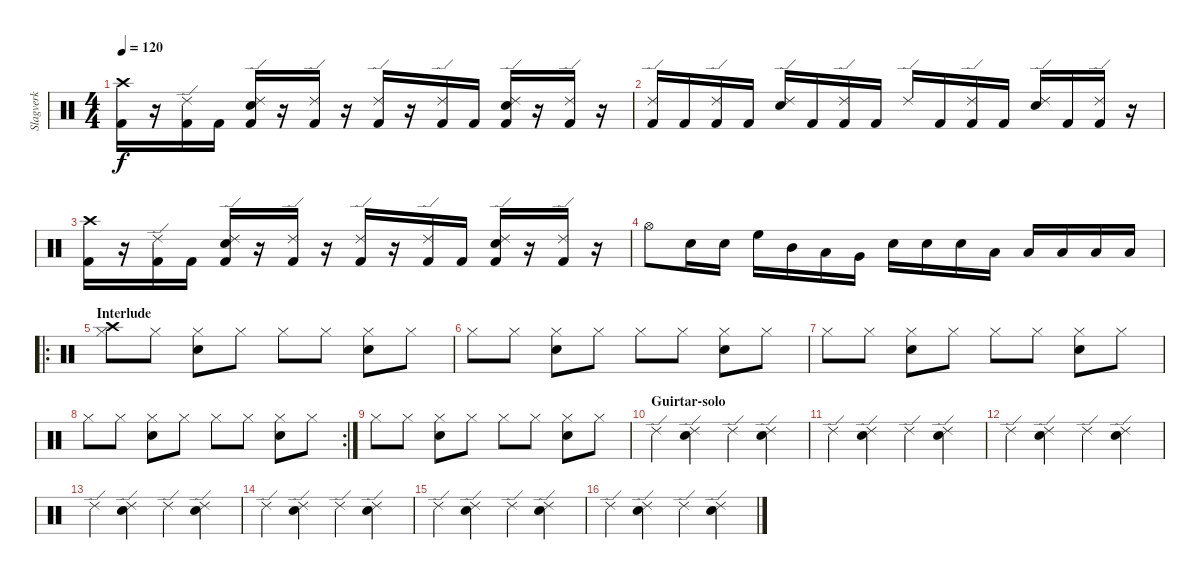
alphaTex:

\track ("Slagverk" "Slagverk") {instrument percussion}
\staff {score}
\articulation defaults
\ts (4 4)
\tempo 120
\clef neutral
\ks c
("Kick (hit) 2" "Crash high (hit)").16{dy f} r.16 ("Kick (hit) 2" "Ride (edge) 2").16 "Kick (hit) 2".16 ("Kick (hit) 2" "Electric Snare (hit)" "Ride (edge) 2").16 r.16 ("Kick (hit) 2" "Ride (edge) 2").16 r.16 ("Kick (hit) 2" "Ride (edge) 2").16 r.16 ("Kick (hit) 2" "Ride (edge) 2").16 "Kick (hit) 2".16 ("Kick (hit) 2" "Electric Snare (hit)" "Ride (edge) 2").16 r.16 ("Kick (hit) 2" "Ride (edge) 2").16 r.16 |
("Kick (hit) 2" "Ride (edge) 2").16 "Kick (hit) 2".16 ("Kick (hit) 2" "Ride (edge) 2").16 "Kick (hit) 2".16 ("Electric Snare (hit)" "Ride (edge) 2").16 "Kick (hit) 2".16 ("Kick (hit) 2" "Ride (edge) 2").16 "Kick (hit) 2".16 "Ride (edge) 2".16 "Kick (hit) 2".16 ("Kick (hit) 2" "Ride (edge) 2").16 "Kick (hit) 2".16 ("Electric Snare (hit)" "Ride (edge) 2").16 "Kick (hit) 2".16 ("Kick (hit) 2" "Ride (edge) 2").16 r.16 |
("Kick (hit) 2" "Crash high (hit)").16 r.16 ("Kick (hit) 2" "Ride (edge) 2").16 "Kick (hit) 2".16 ("Kick (hit) 2" "Electric Snare (hit)" "Ride (edge) 2").16 r.16 ("Kick (hit) 2" "Ride (edge) 2").16 r.16 ("Kick (hit) 2" "Ride (edge) 2").16 r.16 ("Kick (hit) 2" "Ride (edge) 2").16 "Kick (hit) 2".16 ("Kick (hit) 2" "Electric Snare (hit)" "Ride (edge) 2").16 r.16 ("Kick (hit) 2" "Ride (edge) 2").16 r.16 |
"Hi-Hat (open)".8 "Electric Snare (hit)".16 "Electric Snare (hit)".16 "High Floor Tom (hit)".16 "Mid Tom (hit)".16 "Low Tom (hit)".16 "Very Low Tom (hit)".16 "Electric Snare (hit)".16 "Electric Snare (hit)".16 "Electric Snare (hit)".16 "Low Tom (hit)".16 "Low Floor Tom (hit)".16 "Low Floor Tom (hit)".16 "Low Floor Tom (hit)".16 "Low Floor Tom (hit)".16 |
\ro
\section ("" "Interlude")
("Hi-Hat (closed)" "Crash high (hit)").8 "Hi-Hat (closed)".8 ("Hi-Hat (closed)" "Electric Snare (hit)").8 "Hi-Hat (closed)".8 "Hi-Hat (closed)".8 "Hi-Hat (closed)".8 ("Hi-Hat (closed)" "Electric Snare (hit)").8 "Hi-Hat (closed)".8 |
"Hi-Hat (closed)".8 "Hi-Hat (closed)".8 ("Hi-Hat (closed)" "Electric Snare (hit)").8 "Hi-Hat (closed)".8 "Hi-Hat (closed)".8 "Hi-Hat (closed)".8 ("Hi-Hat (closed)" "Electric Snare (hit)").8 "Hi-Hat (closed)".8 |
"Hi-Hat (closed)".8 "Hi-Hat (closed)".8 ("Hi-Hat (closed)" "Electric Snare (hit)").8 "Hi-Hat (closed)".8 "Hi-Hat (closed)".8 "Hi-Hat (closed)".8 ("Hi-Hat (closed)" "Electric Snare (hit)").8 "Hi-Hat (closed)".8 |
\rc 2 "Hi-Hat (closed)".8 "Hi-Hat (closed)".8
("Hi-Hat (closed)" "Electric Snare (hit)").8 "Hi-Hat (closed)".8 "Hi-Hat (closed)".8 "Hi-Hat (closed)".8 ("Hi-Hat (closed)" "Electric Snare (hit)").8 "Hi-Hat (closed)".8 |
"Hi-Hat (closed)".8 "Hi-Hat (closed)".8 ("Hi-Hat (closed)" "Electric Snare (hit)").8 "Hi-Hat (closed)".8 "Hi-Hat (closed)".8 "Hi-Hat (closed)".8 ("Hi-Hat (closed)" "Electric Snare (hit)").8 "Hi-Hat (closed)".8 |
\section ("" "Guirtar-solo")
"Ride (edge) 2".4 ("Ride (edge) 2" "Electric Snare (hit)").4 "Ride (edge) 2".4 ("Ride (edge) 2" "Electric Snare (hit)").4 |
"Ride (edge) 2".4 ("Ride (edge) 2" "Electric Snare (hit)").4 "Ride (edge) 2".4 ("Ride (edge) 2" "Electric Snare (hit)").4 |
"Ride (edge) 2".4 ("Ride (edge) 2" "Electric Snare (hit)").4 "Ride (edge) 2".4 ("Ride (edge) 2" "Electric Snare (hit)").4 |
"Ride (edge) 2".4 ("Ride (edge) 2" "Electric Snare (hit)").4 "Ride (edge) 2".4 ("Ride (edge) 2" "Electric Snare (hit)").4 |
"Ride (edge) 2".4 ("Ride (edge) 2" "Electric Snare (hit)").4 "Ride (edge) 2".4 ("Ride (edge) 2" "Electric Snare (hit)").4 |
"Ride (edge) 2".4 ("Ride (edge) 2" "Electric Snare (hit)").4 "Ride (edge) 2".4 ("Ride (edge) 2" "Electric Snare (hit)").4 |
"Ride (edge) 2".4 ("Ride (edge) 2" "Electric Snare (hit)").4 "Ride (edge) 2".4 ("Ride (edge) 2" "Electric Snare (hit)").4
